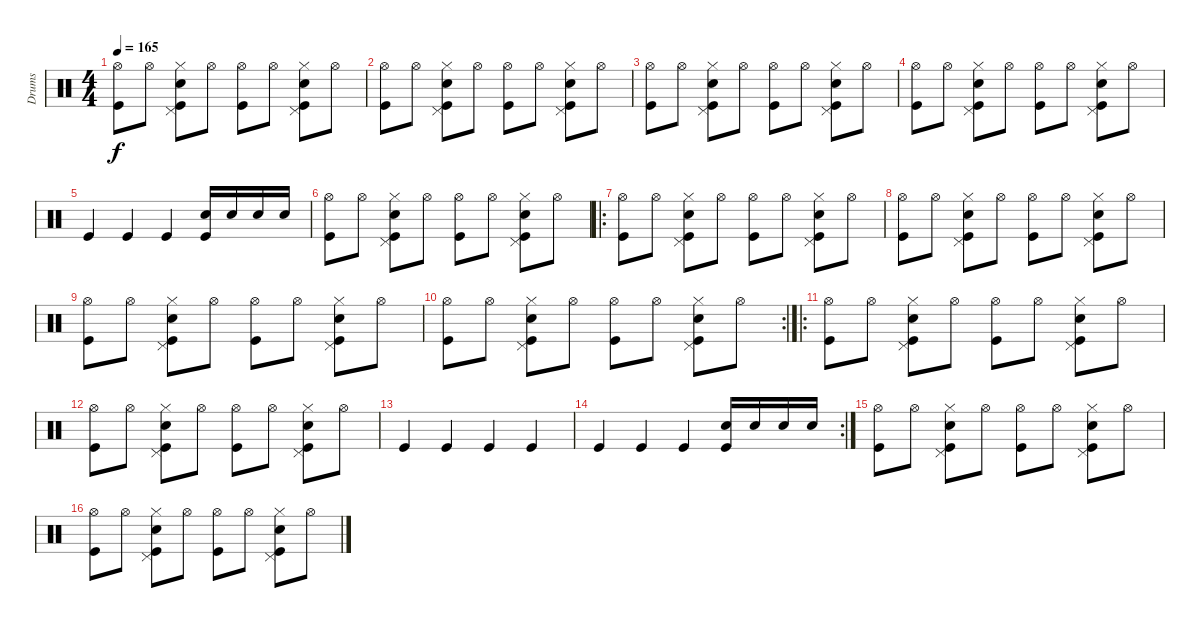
\track ("Drums" "Drums") {instrument percussion}
\staff {score}
\articulation defaults
\ts (4 4)
\tempo 165
\clef neutral
\ks c
("Hi-Hat (open)" "Kick (hit)").8{dy f} "Hi-Hat (open)".8 ("Hi-Hat (closed)" "Pedal Hi-Hat (hit)" "Snare (hit) 2" "Kick (hit)").8 "Hi-Hat (open)".8 ("Hi-Hat (open)" "Kick (hit)").8 "Hi-Hat (open)".8 ("Hi-Hat (closed)" "Pedal Hi-Hat (hit)" "Snare (hit) 2" "Kick (hit)").8 "Hi-Hat (open)".8 |
("Hi-Hat (open)" "Kick (hit)").8 "Hi-Hat (open)".8 ("Hi-Hat (closed)" "Pedal Hi-Hat (hit)" "Snare (hit) 2" "Kick (hit)").8 "Hi-Hat (open)".8 ("Hi-Hat (open)" "Kick (hit)").8 "Hi-Hat (open)".8 ("Hi-Hat (closed)" "Pedal Hi-Hat (hit)" "Snare (hit) 2" "Kick (hit)").8 "Hi-Hat (open)".8 |
("Hi-Hat (open)" "Kick (hit)").8 "Hi-Hat (open)".8 ("Hi-Hat (closed)" "Pedal Hi-Hat (hit)" "Snare (hit) 2" "Kick (hit)").8 "Hi-Hat (open)".8 ("Hi-Hat (open)" "Kick (hit)").8 "Hi-Hat (open)".8 ("Hi-Hat (closed)" "Pedal Hi-Hat (hit)" "Snare (hit) 2" "Kick (hit)").8 "Hi-Hat (open)".8 |
("Hi-Hat (open)" "Kick (hit)").8 "Hi-Hat (open)".8 ("Hi-Hat (closed)" "Pedal Hi-Hat (hit)" "Snare (hit) 2" "Kick (hit)").8 "Hi-Hat (open)".8 ("Hi-Hat (open)" "Kick (hit)").8 "Hi-Hat (open)".8 ("Hi-Hat (closed)" "Pedal Hi-Hat (hit)" "Snare (hit) 2" "Kick (hit)").8 "Hi-Hat (open)".8 |
"Kick (hit)".4 "Kick (hit)".4 "Kick (hit)".4 ("Snare (hit) 2" "Kick (hit)").16 "Snare (hit) 2".16 "Snare (hit) 2".16 "Snare (hit) 2".16 |
("Hi-Hat (open)" "Kick (hit)").8 "Hi-Hat (open)".8 ("Hi-Hat (closed)" "Pedal Hi-Hat (hit)" "Snare (hit) 2" "Kick (hit)").8 "Hi-Hat (open)".8 ("Hi-Hat (open)" "Kick (hit)").8 "Hi-Hat (open)".8 ("Hi-Hat (closed)" "Pedal Hi-Hat (hit)" "Snare (hit) 2" "Kick (hit)").8 "Hi-Hat (open)".8 |
\ro
("Hi-Hat (open)" "Kick (hit)").8 "Hi-Hat (open)".8 ("Hi-Hat (closed)" "Pedal Hi-Hat (hit)" "Snare (hit) 2" "Kick (hit)").8 "Hi-Hat (open)".8 ("Hi-Hat (open)" "Kick (hit)").8 "Hi-Hat (open)".8 ("Hi-Hat (closed)" "Pedal Hi-Hat (hit)" "Snare (hit) 2" "Kick (hit)").8 "Hi-Hat (open)".8 |
("Hi-Hat (open)" "Kick (hit)").8 "Hi-Hat (open)".8 ("Hi-Hat (closed)" "Pedal Hi-Hat (hit)" "Snare (hit) 2" "Kick (hit)").8 "Hi-Hat (open)".8 ("Hi-Hat (open)" "Kick (hit)").8 "Hi-Hat (open)".8 ("Hi-Hat (closed)" "Pedal Hi-Hat (hit)" "Snare (hit) 2" "Kick (hit)").8 "Hi-Hat (open)".8 |
("Hi-Hat (open)" "Kick (hit)").8 "Hi-Hat (open)".8 ("Hi-Hat (closed)" "Pedal Hi-Hat (hit)" "Snare (hit) 2" "Kick (hit)").8 "Hi-Hat (open)".8 ("Hi-Hat (open)" "Kick (hit)").8 "Hi-Hat (open)".8 ("Hi-Hat (closed)" "Pedal Hi-Hat (hit)" "Snare (hit) 2" "Kick (hit)").8 "Hi-Hat (open)".8 |
\rc 2
("Hi-Hat (open)" "Kick (hit)").8 "Hi-Hat (open)".8 ("Hi-Hat (closed)" "Pedal Hi-Hat (hit)" "Snare (hit) 2" "Kick (hit)").8 "Hi-Hat (open)".8 ("Hi-Hat (open)" "Kick (hit)").8 "Hi-Hat (open)".8 ("Hi-Hat (closed)" "Pedal Hi-Hat (hit)" "Snare (hit) 2" "Kick (hit)").8 "Hi-Hat (open)".8 |
\ro
("Hi-Hat (open)" "Kick (hit)").8 "Hi-Hat (open)".8 ("Hi-Hat (closed)" "Pedal Hi-Hat (hit)" "Snare (hit) 2" "Kick (hit)").8 "Hi-Hat (open)".8 ("Hi-Hat (open)" "Kick (hit)").8 "Hi-Hat (open)".8 ("Hi-Hat (closed)" "Pedal Hi-Hat (hit)" "Snare (hit) 2" "Kick (hit)").8 "Hi-Hat (open)".8 |
("Hi-Hat (open)" "Kick (hit)").8 "Hi-Hat (open)".8 ("Hi-Hat (closed)" "Pedal Hi-Hat (hit)" "Snare (hit) 2" "Kick (hit)").8 "Hi-Hat (open)".8 ("Hi-Hat (open)" "Kick (hit)").8 "Hi-Hat (open)".8 ("Hi-Hat (closed)" "Pedal Hi-Hat (hit)" "Snare (hit) 2" "Kick (hit)").8 "Hi-Hat (open)".8 |
"Kick (hit)".4 "Kick (hit)".4 "Kick (hit)".4 "Kick (hit)".4 |
\rc 2 "Kick (hit)".4 "Kick (hit)".4 "Kick (hit)".4
("Snare (hit) 2" "Kick (hit)").16 "Snare (hit) 2".16 "Snare (hit) 2".16 "Snare (hit) 2".16 |
("Hi-Hat (open)" "Kick (hit)").8 "Hi-Hat (open)".8 ("Hi-Hat (closed)" "Pedal Hi-Hat (hit)" "Snare (hit) 2" "Kick (hit)").8 "Hi-Hat (open)".8 ("Hi-Hat (open)" "Kick (hit)").8 "Hi-Hat (open)".8 ("Hi-Hat (closed)" "Pedal Hi-Hat (hit)" "Snare (hit) 2" "Kick (hit)").8 "Hi-Hat (open)".8 |
("Hi-Hat (open)" "Kick (hit)").8 "Hi-Hat (open)".8 ("Hi-Hat (closed)" "Pedal Hi-Hat (hit)" "Snare (hit) 2" "Kick (hit)").8 "Hi-Hat (open)".8 ("Hi-Hat (open)" "Kick (hit)").8 "Hi-Hat (open)".8 ("Hi-Hat (closed)" "Pedal Hi-Hat (hit)" "Snare (hit) 2" "Kick (hit)").8 "Hi-Hat (open)".8
